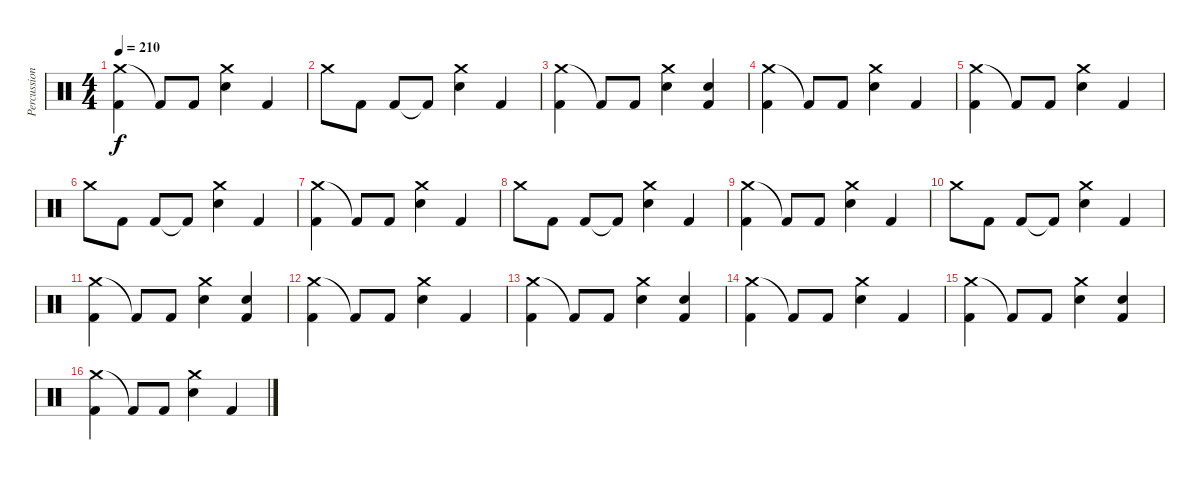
\track ("Percussion" "Percussion") {instrument percussion}
\staff {score}
\articulation defaults
\ts (4 4)
\tempo 210
\clef neutral
\ks c
("Crash medium (hit)" "Kick (hit) 2").4{dy f} "Kick (hit) 2"{t}.8 "Kick (hit) 2".8 ("Crash medium (hit)" "Electric Snare (hit)").4 "Kick (hit) 2".4 |
"Crash medium (hit)".8 "Kick (hit) 2".8 "Kick (hit) 2".8 "Kick (hit) 2"{t}.8 ("Crash medium (hit)" "Electric Snare (hit)").4 "Kick (hit) 2".4 |
("Crash medium (hit)" "Kick (hit) 2").4 "Kick (hit) 2"{t}.8 "Kick (hit) 2".8 ("Crash medium (hit)" "Electric Snare (hit)").4 ("Electric Snare (hit)" "Kick (hit) 2").4 |
("Crash medium (hit)" "Kick (hit) 2").4 "Kick (hit) 2"{t}.8 "Kick (hit) 2".8 ("Crash medium (hit)" "Electric Snare (hit)").4 "Kick (hit) 2".4 |
("Crash medium (hit)" "Kick (hit) 2").4 "Kick (hit) 2"{t}.8 "Kick (hit) 2".8 ("Crash medium (hit)" "Electric Snare (hit)").4 "Kick (hit) 2".4 |
"Crash medium (hit)".8 "Kick (hit) 2".8 "Kick (hit) 2".8 "Kick (hit) 2"{t}.8 ("Crash medium (hit)" "Electric Snare (hit)").4 "Kick (hit) 2".4 |
("Crash medium (hit)" "Kick (hit) 2").4 "Kick (hit) 2"{t}.8 "Kick (hit) 2".8 ("Crash medium (hit)" "Electric Snare (hit)").4 "Kick (hit) 2".4 |
"Crash medium (hit)".8 "Kick (hit) 2".8 "Kick (hit) 2".8 "Kick (hit) 2"{t}.8 ("Crash medium (hit)" "Electric Snare (hit)").4 "Kick (hit) 2".4 |
("Crash medium (hit)" "Kick (hit) 2").4 "Kick (hit) 2"{t}.8 "Kick (hit) 2".8 ("Crash medium (hit)" "Electric Snare (hit)").4 "Kick (hit) 2".4 |
"Crash medium (hit)".8 "Kick (hit) 2".8 "Kick (hit) 2".8 "Kick (hit) 2"{t}.8 ("Crash medium (hit)" "Electric Snare (hit)").4 "Kick (hit) 2".4 |
("Crash medium (hit)" "Kick (hit) 2").4 "Kick (hit) 2"{t}.8 "Kick (hit) 2".8 ("Crash medium (hit)" "Electric Snare (hit)").4 ("Electric Snare (hit)" "Kick (hit) 2").4 |
("Crash medium (hit)" "Kick (hit) 2").4 "Kick (hit) 2"{t}.8 "Kick (hit) 2".8 ("Crash medium (hit)" "Electric Snare (hit)").4 "Kick (hit) 2".4 |
("Crash medium (hit)" "Kick (hit) 2").4 "Kick (hit) 2"{t}.8 "Kick (hit) 2".8 ("Crash medium (hit)" "Electric Snare (hit)").4 ("Electric Snare (hit)" "Kick (hit) 2").4 |
("Crash medium (hit)" "Kick (hit) 2").4 "Kick (hit) 2"{t}.8 "Kick (hit) 2".8 ("Crash medium (hit)" "Electric Snare (hit)").4 "Kick (hit) 2".4 |
("Crash medium (hit)" "Kick (hit) 2").4 "Kick (hit) 2"{t}.8 "Kick (hit) 2".8 ("Crash medium (hit)" "Electric Snare (hit)").4 ("Electric Snare (hit)" "Kick (hit) 2").4 |
("Crash medium (hit)" "Kick (hit) 2").4 "Kick (hit) 2"{t}.8 "Kick (hit) 2".8 ("Crash medium (hit)" "Electric Snare (hit)").4 "Kick (hit) 2".4
